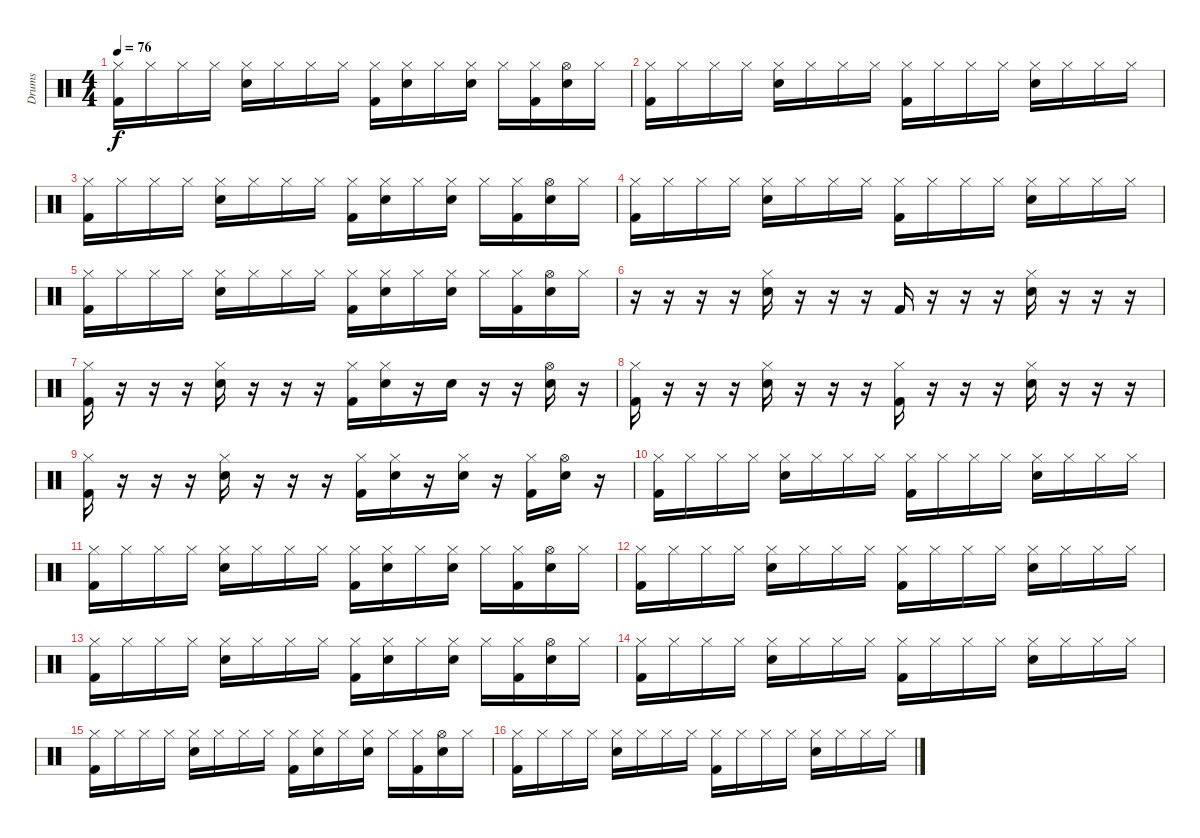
\track ("Drums" "Drums") {instrument percussion}
\staff {score}
\articulation defaults
\ts (4 4)
\tempo 76
\clef neutral
\ks c
("Hi-Hat (closed)" "Kick (hit) 2").16{dy f} "Hi-Hat (closed)".16 "Hi-Hat (closed)".16 "Hi-Hat (closed)".16 ("Hi-Hat (closed)" "Snare (hit) 2").16 "Hi-Hat (closed)".16 "Hi-Hat (closed)".16 "Hi-Hat (closed)".16 ("Hi-Hat (closed)" "Kick (hit) 2").16 ("Hi-Hat (closed)" "Snare (hit) 2").16 "Hi-Hat (closed)".16 ("Hi-Hat (closed)" "Snare (hit) 2").16 "Hi-Hat (closed)".16 ("Hi-Hat (closed)" "Kick (hit) 2").16 ("Hi-Hat (open)" "Snare (hit) 2").16 "Hi-Hat (closed)".16 |
("Hi-Hat (closed)" "Kick (hit) 2").16 "Hi-Hat (closed)".16 "Hi-Hat (closed)".16 "Hi-Hat (closed)".16 ("Hi-Hat (closed)" "Snare (hit) 2").16 "Hi-Hat (closed)".16 "Hi-Hat (closed)".16 "Hi-Hat (closed)".16 ("Hi-Hat (closed)" "Kick (hit) 2").16 "Hi-Hat (closed)".16 "Hi-Hat (closed)".16 "Hi-Hat (closed)".16 ("Hi-Hat (closed)" "Snare (hit) 2").16 "Hi-Hat (closed)".16 "Hi-Hat (closed)".16 "Hi-Hat (closed)".16 |
("Hi-Hat (closed)" "Kick (hit) 2").16 "Hi-Hat (closed)".16 "Hi-Hat (closed)".16 "Hi-Hat (closed)".16 ("Hi-Hat (closed)" "Snare (hit) 2").16 "Hi-Hat (closed)".16 "Hi-Hat (closed)".16 "Hi-Hat (closed)".16 ("Hi-Hat (closed)" "Kick (hit) 2").16 ("Hi-Hat (closed)" "Snare (hit) 2").16 "Hi-Hat (closed)".16 ("Hi-Hat (closed)" "Snare (hit) 2").16 "Hi-Hat (closed)".16 ("Hi-Hat (closed)" "Kick (hit) 2").16 ("Hi-Hat (open)" "Snare (hit) 2").16 "Hi-Hat (closed)".16 |
("Hi-Hat (closed)" "Kick (hit) 2").16 "Hi-Hat (closed)".16 "Hi-Hat (closed)".16 "Hi-Hat (closed)".16 ("Hi-Hat (closed)" "Snare (hit) 2").16 "Hi-Hat (closed)".16 "Hi-Hat (closed)".16 "Hi-Hat (closed)".16 ("Hi-Hat (closed)" "Kick (hit) 2").16 "Hi-Hat (closed)".16 "Hi-Hat (closed)".16 "Hi-Hat (closed)".16 ("Hi-Hat (closed)" "Snare (hit) 2").16 "Hi-Hat (closed)".16 "Hi-Hat (closed)".16 "Hi-Hat (closed)".16 |
("Hi-Hat (closed)" "Kick (hit) 2").16 "Hi-Hat (closed)".16 "Hi-Hat (closed)".16 "Hi-Hat (closed)".16 ("Hi-Hat (closed)" "Snare (hit) 2").16 "Hi-Hat (closed)".16 "Hi-Hat (closed)".16 "Hi-Hat (closed)".16 ("Hi-Hat (closed)" "Kick (hit) 2").16 ("Hi-Hat (closed)" "Snare (hit) 2").16 "Hi-Hat (closed)".16 ("Hi-Hat (closed)" "Snare (hit) 2").16 "Hi-Hat (closed)".16 ("Hi-Hat (closed)" "Kick (hit) 2").16 ("Hi-Hat (open)" "Snare (hit) 2").16 "Hi-Hat (closed)".16 |
r.16 r.16 r.16 r.16 ("Hi-Hat (closed)" "Snare (hit) 2").16 r.16 r.16 r.16 "Kick (hit) 2".16 r.16 r.16 r.16 ("Hi-Hat (closed)" "Snare (hit) 2").16 r.16 r.16 r.16 |
("Hi-Hat (closed)" "Kick (hit) 2").16 r.16 r.16 r.16 ("Hi-Hat (closed)" "Snare (hit) 2").16 r.16 r.16 r.16 ("Hi-Hat (closed)" "Kick (hit) 2").16 ("Hi-Hat (closed)" "Snare (hit) 2").16 r.16 "Snare (hit) 2".16 r.16 r.16 ("Hi-Hat (open)" "Snare (hit) 2").16 r.16 |
("Hi-Hat (closed)" "Kick (hit) 2").16 r.16 r.16 r.16 ("Hi-Hat (closed)" "Snare (hit) 2").16 r.16 r.16 r.16 ("Hi-Hat (closed)" "Kick (hit) 2").16 r.16 r.16 r.16 ("Hi-Hat (closed)" "Snare (hit) 2").16 r.16 r.16 r.16 |
("Hi-Hat (closed)" "Kick (hit) 2").16 r.16 r.16 r.16 ("Hi-Hat (closed)" "Snare (hit) 2").16 r.16 r.16 r.16 ("Hi-Hat (closed)" "Kick (hit) 2").16 ("Hi-Hat (closed)" "Snare (hit) 2").16 r.16 ("Hi-Hat (closed)" "Snare (hit) 2").16 r.16 ("Hi-Hat (closed)" "Kick (hit) 2").16 ("Hi-Hat (open)" "Snare (hit) 2").16 r.16 |
("Hi-Hat (closed)" "Kick (hit) 2").16 "Hi-Hat (closed)".16 "Hi-Hat (closed)".16 "Hi-Hat (closed)".16 ("Hi-Hat (closed)" "Snare (hit) 2").16 "Hi-Hat (closed)".16 "Hi-Hat (closed)".16 "Hi-Hat (closed)".16 ("Hi-Hat (closed)" "Kick (hit) 2").16 "Hi-Hat (closed)".16 "Hi-Hat (closed)".16 "Hi-Hat (closed)".16 ("Hi-Hat (closed)" "Snare (hit) 2").16 "Hi-Hat (closed)".16 "Hi-Hat (closed)".16 "Hi-Hat (closed)".16 |
("Hi-Hat (closed)" "Kick (hit) 2").16 "Hi-Hat (closed)".16 "Hi-Hat (closed)".16 "Hi-Hat (closed)".16 ("Hi-Hat (closed)" "Snare (hit) 2").16 "Hi-Hat (closed)".16 "Hi-Hat (closed)".16 "Hi-Hat (closed)".16 ("Hi-Hat (closed)" "Kick (hit) 2").16 ("Hi-Hat (closed)" "Snare (hit) 2").16 "Hi-Hat (closed)".16 ("Hi-Hat (closed)" "Snare (hit) 2").16 "Hi-Hat (closed)".16 ("Hi-Hat (closed)" "Kick (hit) 2").16 ("Hi-Hat (open)" "Snare (hit) 2").16 "Hi-Hat (closed)".16 |
("Hi-Hat (closed)" "Kick (hit) 2").16 "Hi-Hat (closed)".16 "Hi-Hat (closed)".16 "Hi-Hat (closed)".16 ("Hi-Hat (closed)" "Snare (hit) 2").16 "Hi-Hat (closed)".16 "Hi-Hat (closed)".16 "Hi-Hat (closed)".16 ("Hi-Hat (closed)" "Kick (hit) 2").16 "Hi-Hat (closed)".16 "Hi-Hat (closed)".16 "Hi-Hat (closed)".16 ("Hi-Hat (closed)" "Snare (hit) 2").16 "Hi-Hat (closed)".16 "Hi-Hat (closed)".16 "Hi-Hat (closed)".16 |
("Hi-Hat (closed)" "Kick (hit) 2").16 "Hi-Hat (closed)".16 "Hi-Hat (closed)".16 "Hi-Hat (closed)".16 ("Hi-Hat (closed)" "Snare (hit) 2").16 "Hi-Hat (closed)".16 "Hi-Hat (closed)".16 "Hi-Hat (closed)".16 ("Hi-Hat (closed)" "Kick (hit) 2").16 ("Hi-Hat (closed)" "Snare (hit) 2").16 "Hi-Hat (closed)".16 ("Hi-Hat (closed)" "Snare (hit) 2").16 "Hi-Hat (closed)".16 ("Hi-Hat (closed)" "Kick (hit) 2").16 ("Hi-Hat (open)" "Snare (hit) 2").16 "Hi-Hat (closed)".16 |
("Hi-Hat (closed)" "Kick (hit) 2").16 "Hi-Hat (closed)".16 "Hi-Hat (closed)".16 "Hi-Hat (closed)".16 ("Hi-Hat (closed)" "Snare (hit) 2").16 "Hi-Hat (closed)".16 "Hi-Hat (closed)".16 "Hi-Hat (closed)".16 ("Hi-Hat (closed)" "Kick (hit) 2").16 "Hi-Hat (closed)".16 "Hi-Hat (closed)".16 "Hi-Hat (closed)".16 ("Hi-Hat (closed)" "Snare (hit) 2").16 "Hi-Hat (closed)".16 "Hi-Hat (closed)".16 "Hi-Hat (closed)".16 |
("Hi-Hat (closed)" "Kick (hit) 2").16 "Hi-Hat (closed)".16 "Hi-Hat (closed)".16 "Hi-Hat (closed)".16 ("Hi-Hat (closed)" "Snare (hit) 2").16 "Hi-Hat (closed)".16 "Hi-Hat (closed)".16 "Hi-Hat (closed)".16 ("Hi-Hat (closed)" "Kick (hit) 2").16 ("Hi-Hat (closed)" "Snare (hit) 2").16 "Hi-Hat (closed)".16 ("Hi-Hat (closed)" "Snare (hit) 2").16 "Hi-Hat (closed)".16 ("Hi-Hat (closed)" "Kick (hit) 2").16 ("Hi-Hat (open)" "Snare (hit) 2").16 "Hi-Hat (closed)".16 |
("Hi-Hat (closed)" "Kick (hit) 2").16 "Hi-Hat (closed)".16 "Hi-Hat (closed)".16 "Hi-Hat (closed)".16 ("Hi-Hat (closed)" "Snare (hit) 2").16 "Hi-Hat (closed)".16 "Hi-Hat (closed)".16 "Hi-Hat (closed)".16 ("Hi-Hat (closed)" "Kick (hit) 2").16 "Hi-Hat (closed)".16 "Hi-Hat (closed)".16 "Hi-Hat (closed)".16 ("Hi-Hat (closed)" "Snare (hit) 2").16 "Hi-Hat (closed)".16 "Hi-Hat (closed)".16 "Hi-Hat (closed)".16
